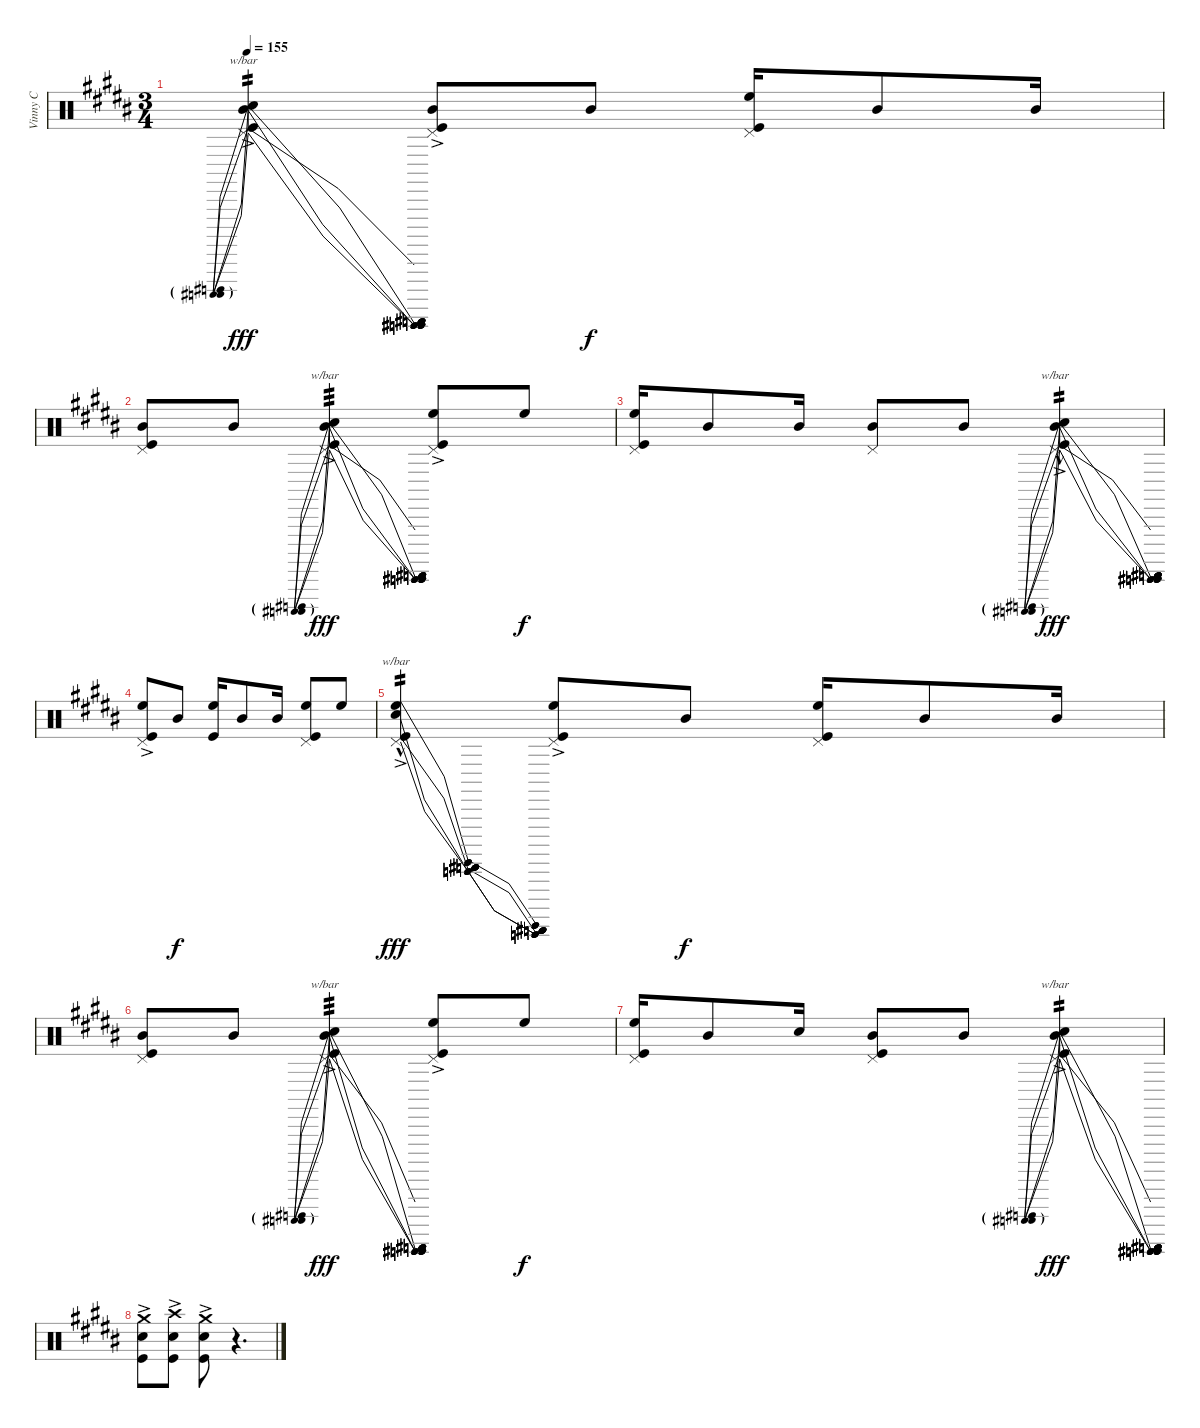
\track ("Vinny C" "Vinny C") {instrument percussion}
\staff {score}
\articulation defaults
\ts (3 4)
\tempo 155
\clef neutral
\ks b
("Pedal Hi-Hat (hit)" "Mid Tom (hit)" "Electric Snare (hit)" "Kick (hit)"{ac}).4{tbe (predivedive default 0 8 60 -24) tp 2 dy fff} ("Pedal Hi-Hat (hit)" "Mid Tom (hit)" "Kick (hit)"{ac}).8 "Mid Tom (hit)".8{dy f} ("Pedal Hi-Hat (hit)" "High Floor Tom (hit)" "Kick (hit)").16 "Mid Tom (hit)".8 "Mid Tom (hit)".16 |
("Pedal Hi-Hat (hit)" "Mid Tom (hit)" "Kick (hit)").8 "Mid Tom (hit)".8 ("Pedal Hi-Hat (hit)" "Mid Tom (hit)" "Electric Snare (hit)" "Kick (hit)"{ac}).4{tbe (predivedive default 0 -12 60 24) tp 3 dy fff} ("Pedal Hi-Hat (hit)" "High Floor Tom (hit)" "Kick (hit)"{ac}).8 "High Floor Tom (hit)".8{dy f} |
("Pedal Hi-Hat (hit)" "High Floor Tom (hit)" "Kick (hit)").16 "Mid Tom (hit)".8 "Mid Tom (hit)".16 ("Pedal Hi-Hat (hit)" "Mid Tom (hit)").8 "Mid Tom (hit)".8 ("Pedal Hi-Hat (hit)" "Mid Tom (hit)" "Electric Snare (hit)"{hac} "Kick (hit)"{ac}).4{tbe (predivedive default 0 -16 60 24) tp 2 dy fff} |
("Pedal Hi-Hat (hit)" "High Floor Tom (hit)" "Kick (hit)"{ac}).8 "Mid Tom (hit)".8{dy f} ("High Floor Tom (hit)" "Kick (hit)").16 "Mid Tom (hit)".8 "Mid Tom (hit)".16 ("Pedal Hi-Hat (hit)" "High Floor Tom (hit)" "Kick (hit)").8 "High Floor Tom (hit)".8 |
("Pedal Hi-Hat (hit)" "High Floor Tom (hit)" "Electric Snare (hit)"{hac} "Kick (hit)"{ac}).4{tbe (dip default 0 0 30 24 60 -24) tp 2 dy fff} ("Pedal Hi-Hat (hit)" "High Floor Tom (hit)" "Kick (hit)"{ac}).8 "Mid Tom (hit)".8{dy f} ("Pedal Hi-Hat (hit)" "High Floor Tom (hit)" "Kick (hit)").16 "Mid Tom (hit)".8 "Mid Tom (hit)".16 |
("Pedal Hi-Hat (hit)" "Mid Tom (hit)" "Kick (hit)").8 "Mid Tom (hit)".8 ("Pedal Hi-Hat (hit)" "Mid Tom (hit)" "Electric Snare (hit)" "Kick (hit)"{ac}).4{tbe (predivedive default 0 16 60 -24) tp 3 dy fff} ("Pedal Hi-Hat (hit)" "High Floor Tom (hit)" "Kick (hit)"{ac}).8 "High Floor Tom (hit)".8{dy f} |
("Pedal Hi-Hat (hit)" "High Floor Tom (hit)" "Kick (hit)").16 "Mid Tom (hit)".8 "Electric Snare (hit)".16 ("Pedal Hi-Hat (hit)" "Mid Tom (hit)" "Kick (hit)").8 "Mid Tom (hit)".8 ("Pedal Hi-Hat (hit)" "Mid Tom (hit)" "Electric Snare (hit)" "Kick (hit)"{ac}).4{tbe (predivedive default 0 20 60 -24) tp 2 dy fff} |
("Crash medium (hit)"{ac} "Electric Snare (hit)" "Kick (hit)"{ac}).8 ("Crash high (hit)"{ac} "Electric Snare (hit)" "Kick (hit)"{ac}).8 ("Crash medium (hit)"{ac} "Electric Snare (hit)" "Kick (hit)"{ac}).8 r.4{d}
